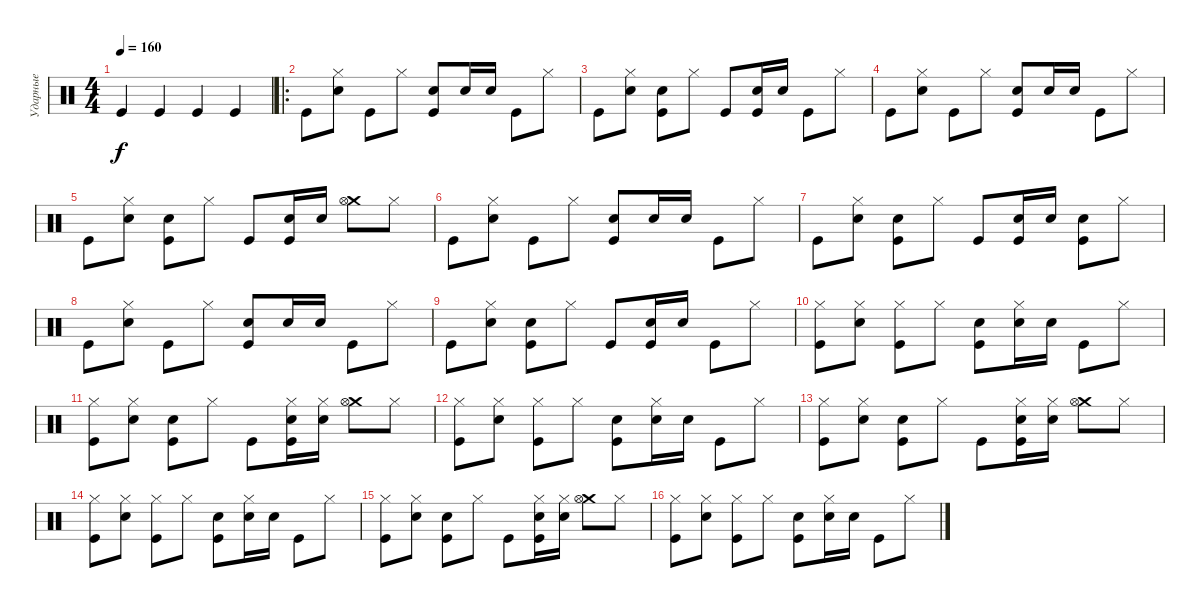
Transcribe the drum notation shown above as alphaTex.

\track ("Ударные" "Ударные") {instrument percussion}
\staff {score}
\articulation defaults
\ts (4 4)
\tempo 160
\clef neutral
\ks c "Kick (hit)".4{dy f} "Kick (hit)".4 "Kick (hit)".4 "Kick (hit)".4
|
\ro "Kick (hit)".8
("Hi-Hat (closed)" "Electric Snare (hit)").8 "Kick (hit)".8 "Hi-Hat (closed)".8 ("Kick (hit)" "Electric Snare (hit)").8 "Electric Snare (hit)".16 "Electric Snare (hit)".16 "Kick (hit)".8 "Hi-Hat (closed)".8 |
"Kick (hit)".8 ("Hi-Hat (closed)" "Electric Snare (hit)").8 ("Kick (hit)" "Electric Snare (hit)").8 "Hi-Hat (closed)".8 "Kick (hit)".8 ("Kick (hit)" "Electric Snare (hit)").16 "Electric Snare (hit)".16 "Kick (hit)".8 "Hi-Hat (closed)".8 |
"Kick (hit)".8 ("Hi-Hat (closed)" "Electric Snare (hit)").8 "Kick (hit)".8 "Hi-Hat (closed)".8 ("Kick (hit)" "Electric Snare (hit)").8 "Electric Snare (hit)".16 "Electric Snare (hit)".16 "Kick (hit)".8 "Hi-Hat (closed)".8 |
"Kick (hit)".8 ("Hi-Hat (closed)" "Electric Snare (hit)").8 ("Kick (hit)" "Electric Snare (hit)").8 "Hi-Hat (closed)".8 "Kick (hit)".8 ("Kick (hit)" "Electric Snare (hit)").16 "Electric Snare (hit)".16 ("Crash medium (hit)" "Hi-Hat (open)").8 "Hi-Hat (closed)".8 |
"Kick (hit)".8 ("Hi-Hat (closed)" "Electric Snare (hit)").8 "Kick (hit)".8 "Hi-Hat (closed)".8 ("Kick (hit)" "Electric Snare (hit)").8 "Electric Snare (hit)".16 "Electric Snare (hit)".16 "Kick (hit)".8 "Hi-Hat (closed)".8 |
"Kick (hit)".8 ("Hi-Hat (closed)" "Electric Snare (hit)").8 ("Kick (hit)" "Electric Snare (hit)").8 "Hi-Hat (closed)".8 "Kick (hit)".8 ("Kick (hit)" "Electric Snare (hit)").16 "Electric Snare (hit)".16 ("Kick (hit)" "Electric Snare (hit)").8 "Hi-Hat (closed)".8 |
"Kick (hit)".8 ("Hi-Hat (closed)" "Electric Snare (hit)").8 "Kick (hit)".8 "Hi-Hat (closed)".8 ("Kick (hit)" "Electric Snare (hit)").8 "Electric Snare (hit)".16 "Electric Snare (hit)".16 "Kick (hit)".8 "Hi-Hat (closed)".8 |
"Kick (hit)".8 ("Hi-Hat (closed)" "Electric Snare (hit)").8 ("Kick (hit)" "Electric Snare (hit)").8 "Hi-Hat (closed)".8 "Kick (hit)".8 ("Kick (hit)" "Electric Snare (hit)").16 "Electric Snare (hit)".16 "Kick (hit)".8 "Hi-Hat (closed)".8 |
("Kick (hit)" "Hi-Hat (closed)").8 ("Hi-Hat (closed)" "Electric Snare (hit)").8 ("Kick (hit)" "Hi-Hat (closed)").8 "Hi-Hat (closed)".8 ("Kick (hit)" "Electric Snare (hit)").8 ("Hi-Hat (closed)" "Electric Snare (hit)").16 "Electric Snare (hit)".16 "Kick (hit)".8 "Hi-Hat (closed)".8 |
("Kick (hit)" "Hi-Hat (closed)").8 ("Hi-Hat (closed)" "Electric Snare (hit)").8 ("Kick (hit)" "Electric Snare (hit)").8 "Hi-Hat (closed)".8 "Kick (hit)".8 ("Kick (hit)" "Hi-Hat (closed)" "Electric Snare (hit)").16 ("Hi-Hat (closed)" "Electric Snare (hit)").16 ("Crash medium (hit)" "Hi-Hat (open)").8 "Hi-Hat (closed)".8 |
("Kick (hit)" "Hi-Hat (closed)").8 ("Hi-Hat (closed)" "Electric Snare (hit)").8 ("Kick (hit)" "Hi-Hat (closed)").8 "Hi-Hat (closed)".8 ("Kick (hit)" "Electric Snare (hit)").8 ("Hi-Hat (closed)" "Electric Snare (hit)").16 "Electric Snare (hit)".16 "Kick (hit)".8 "Hi-Hat (closed)".8 |
("Kick (hit)" "Hi-Hat (closed)").8 ("Hi-Hat (closed)" "Electric Snare (hit)").8 ("Kick (hit)" "Electric Snare (hit)").8 "Hi-Hat (closed)".8 "Kick (hit)".8 ("Kick (hit)" "Hi-Hat (closed)" "Electric Snare (hit)").16 ("Hi-Hat (closed)" "Electric Snare (hit)").16 ("Crash medium (hit)" "Hi-Hat (open)").8 "Hi-Hat (closed)".8 |
("Kick (hit)" "Hi-Hat (closed)").8 ("Hi-Hat (closed)" "Electric Snare (hit)").8 ("Kick (hit)" "Hi-Hat (closed)").8 "Hi-Hat (closed)".8 ("Kick (hit)" "Electric Snare (hit)").8 ("Hi-Hat (closed)" "Electric Snare (hit)").16 "Electric Snare (hit)".16 "Kick (hit)".8 "Hi-Hat (closed)".8 |
("Kick (hit)" "Hi-Hat (closed)").8 ("Hi-Hat (closed)" "Electric Snare (hit)").8 ("Kick (hit)" "Electric Snare (hit)").8 "Hi-Hat (closed)".8 "Kick (hit)".8 ("Kick (hit)" "Hi-Hat (closed)" "Electric Snare (hit)").16 ("Hi-Hat (closed)" "Electric Snare (hit)").16 ("Crash medium (hit)" "Hi-Hat (open)").8 "Hi-Hat (closed)".8 |
("Kick (hit)" "Hi-Hat (closed)").8 ("Hi-Hat (closed)" "Electric Snare (hit)").8 ("Kick (hit)" "Hi-Hat (closed)").8 "Hi-Hat (closed)".8 ("Kick (hit)" "Electric Snare (hit)").8 ("Hi-Hat (closed)" "Electric Snare (hit)").16 "Electric Snare (hit)".16 "Kick (hit)".8 "Hi-Hat (closed)".8
